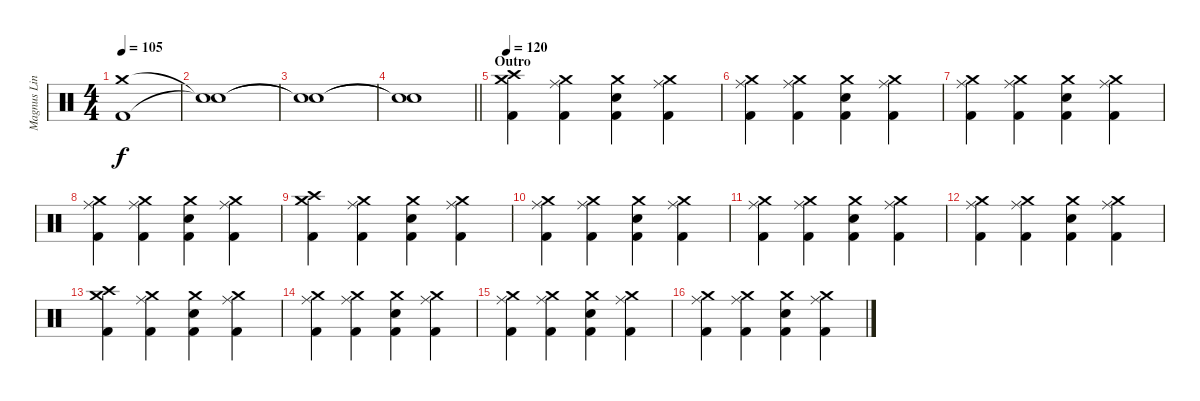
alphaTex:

\track ("Magnus Lindberg" "Magnus Lin") {instrument percussion}
\staff {score}
\articulation defaults
\ts (4 4)
\tempo 105
\clef neutral
\ks c
("Crash medium (hit)" "Kick (hit) 2").1{dy f} |
("Snare (hit)"{t} "Snare (hit)"{t}).1 |
("Snare (hit)"{t} "Snare (hit)"{t}).1 |
\barLineRight lightlight
("Snare (hit)"{t} "Snare (hit)"{t}).1 |
\section ("" "Outro")
\tempo 120
("Crash medium (hit)" "Crash high (hit)" "Kick (hit) 2").4 ("Crash medium (hit)" "Ride (middle)" "Kick (hit) 2").4 ("Crash medium (hit)" "Snare (hit) 2" "Kick (hit) 2").4 ("Crash medium (hit)" "Ride (middle)" "Kick (hit) 2").4 |
("Crash medium (hit)" "Ride (middle)" "Kick (hit) 2").4 ("Crash medium (hit)" "Ride (middle)" "Kick (hit) 2").4 ("Crash medium (hit)" "Snare (hit) 2" "Kick (hit) 2").4 ("Crash medium (hit)" "Ride (middle)" "Kick (hit) 2").4 |
("Crash medium (hit)" "Ride (middle)" "Kick (hit) 2").4 ("Crash medium (hit)" "Ride (middle)" "Kick (hit) 2").4 ("Crash medium (hit)" "Snare (hit) 2" "Kick (hit) 2").4 ("Crash medium (hit)" "Ride (middle)" "Kick (hit) 2").4 |
("Crash medium (hit)" "Ride (middle)" "Kick (hit) 2").4 ("Crash medium (hit)" "Ride (middle)" "Kick (hit) 2").4 ("Crash medium (hit)" "Snare (hit) 2" "Kick (hit) 2").4 ("Crash medium (hit)" "Ride (middle)" "Kick (hit) 2").4 |
("Crash medium (hit)" "Crash high (hit)" "Kick (hit) 2").4 ("Crash medium (hit)" "Ride (middle)" "Kick (hit) 2").4 ("Crash medium (hit)" "Snare (hit) 2" "Kick (hit) 2").4 ("Crash medium (hit)" "Ride (middle)" "Kick (hit) 2").4 |
("Crash medium (hit)" "Ride (middle)" "Kick (hit) 2").4 ("Crash medium (hit)" "Ride (middle)" "Kick (hit) 2").4 ("Crash medium (hit)" "Snare (hit) 2" "Kick (hit) 2").4 ("Crash medium (hit)" "Ride (middle)" "Kick (hit) 2").4 |
("Crash medium (hit)" "Ride (middle)" "Kick (hit) 2").4 ("Crash medium (hit)" "Ride (middle)" "Kick (hit) 2").4 ("Crash medium (hit)" "Snare (hit) 2" "Kick (hit) 2").4 ("Crash medium (hit)" "Ride (middle)" "Kick (hit) 2").4 |
("Crash medium (hit)" "Ride (middle)" "Kick (hit) 2").4 ("Crash medium (hit)" "Ride (middle)" "Kick (hit) 2").4 ("Crash medium (hit)" "Snare (hit) 2" "Kick (hit) 2").4 ("Crash medium (hit)" "Ride (middle)" "Kick (hit) 2").4 |
("Crash medium (hit)" "Crash high (hit)" "Kick (hit) 2").4 ("Crash medium (hit)" "Ride (middle)" "Kick (hit) 2").4 ("Crash medium (hit)" "Snare (hit) 2" "Kick (hit) 2").4 ("Crash medium (hit)" "Ride (middle)" "Kick (hit) 2").4 |
("Crash medium (hit)" "Ride (middle)" "Kick (hit) 2").4 ("Crash medium (hit)" "Ride (middle)" "Kick (hit) 2").4 ("Crash medium (hit)" "Snare (hit) 2" "Kick (hit) 2").4 ("Crash medium (hit)" "Ride (middle)" "Kick (hit) 2").4 |
("Crash medium (hit)" "Ride (middle)" "Kick (hit) 2").4 ("Crash medium (hit)" "Ride (middle)" "Kick (hit) 2").4 ("Crash medium (hit)" "Snare (hit) 2" "Kick (hit) 2").4 ("Crash medium (hit)" "Ride (middle)" "Kick (hit) 2").4 |
("Crash medium (hit)" "Ride (middle)" "Kick (hit) 2").4 ("Crash medium (hit)" "Ride (middle)" "Kick (hit) 2").4 ("Crash medium (hit)" "Snare (hit) 2" "Kick (hit) 2").4 ("Crash medium (hit)" "Ride (middle)" "Kick (hit) 2").4
